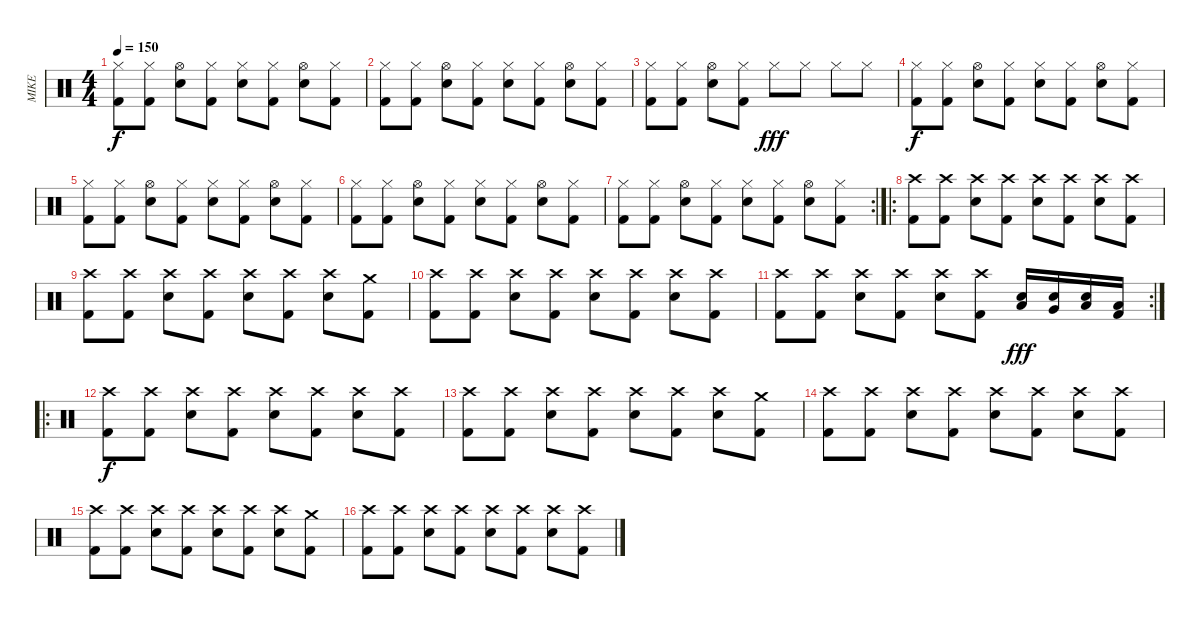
\track ("MIKE" "MIKE") {instrument percussion}
\staff {score}
\articulation defaults
\ts (4 4)
\tempo 150
\clef neutral
\ks c
("Hi-Hat (closed)" "Kick (hit) 2").8{dy f} ("Hi-Hat (closed)" "Kick (hit) 2").8 ("Hi-Hat (open)" "Snare (hit) 2").8 ("Hi-Hat (closed)" "Kick (hit) 2").8 ("Hi-Hat (closed)" "Snare (hit) 2").8 ("Hi-Hat (closed)" "Kick (hit) 2").8 ("Hi-Hat (open)" "Snare (hit) 2").8 ("Hi-Hat (closed)" "Kick (hit) 2").8 |
("Hi-Hat (closed)" "Kick (hit) 2").8 ("Hi-Hat (closed)" "Kick (hit) 2").8 ("Hi-Hat (open)" "Snare (hit) 2").8 ("Hi-Hat (closed)" "Kick (hit) 2").8 ("Hi-Hat (closed)" "Snare (hit) 2").8 ("Hi-Hat (closed)" "Kick (hit) 2").8 ("Hi-Hat (open)" "Snare (hit) 2").8 ("Hi-Hat (closed)" "Kick (hit) 2").8 |
("Hi-Hat (closed)" "Kick (hit) 2").8 ("Hi-Hat (closed)" "Kick (hit) 2").8 ("Hi-Hat (open)" "Snare (hit) 2").8 ("Hi-Hat (closed)" "Kick (hit) 2").8 "Hi-Hat (closed)".8{dy fff} "Hi-Hat (closed)".8 "Hi-Hat (closed)".8 "Hi-Hat (closed)".8 |
("Hi-Hat (closed)" "Kick (hit) 2").8{dy f} ("Hi-Hat (closed)" "Kick (hit) 2").8 ("Hi-Hat (open)" "Snare (hit) 2").8 ("Hi-Hat (closed)" "Kick (hit) 2").8 ("Hi-Hat (closed)" "Snare (hit) 2").8 ("Hi-Hat (closed)" "Kick (hit) 2").8 ("Hi-Hat (open)" "Snare (hit) 2").8 ("Hi-Hat (closed)" "Kick (hit) 2").8 |
("Hi-Hat (closed)" "Kick (hit) 2").8 ("Hi-Hat (closed)" "Kick (hit) 2").8 ("Hi-Hat (open)" "Snare (hit) 2").8 ("Hi-Hat (closed)" "Kick (hit) 2").8 ("Hi-Hat (closed)" "Snare (hit) 2").8 ("Hi-Hat (closed)" "Kick (hit) 2").8 ("Hi-Hat (open)" "Snare (hit) 2").8 ("Hi-Hat (closed)" "Kick (hit) 2").8 |
("Hi-Hat (closed)" "Kick (hit) 2").8 ("Hi-Hat (closed)" "Kick (hit) 2").8 ("Hi-Hat (open)" "Snare (hit) 2").8 ("Hi-Hat (closed)" "Kick (hit) 2").8 ("Hi-Hat (closed)" "Snare (hit) 2").8 ("Hi-Hat (closed)" "Kick (hit) 2").8 ("Hi-Hat (open)" "Snare (hit) 2").8 ("Hi-Hat (closed)" "Kick (hit) 2").8 |
\rc 2
("Hi-Hat (closed)" "Kick (hit) 2").8 ("Hi-Hat (closed)" "Kick (hit) 2").8 ("Hi-Hat (open)" "Snare (hit) 2").8 ("Hi-Hat (closed)" "Kick (hit) 2").8 ("Hi-Hat (closed)" "Snare (hit) 2").8 ("Hi-Hat (closed)" "Kick (hit) 2").8 ("Hi-Hat (open)" "Snare (hit) 2").8 ("Hi-Hat (closed)" "Kick (hit) 2").8 |
\ro
("Crash high (hit)" "Kick (hit) 2").8 ("Crash high (hit)" "Kick (hit) 2").8 ("Crash high (hit)" "Snare (hit) 2").8 ("Crash high (hit)" "Kick (hit) 2").8 ("Crash high (hit)" "Snare (hit) 2").8 ("Crash high (hit)" "Kick (hit) 2").8 ("Crash high (hit)" "Snare (hit) 2").8 ("Crash high (hit)" "Kick (hit) 2").8 |
("Crash high (hit)" "Kick (hit) 2").8 ("Crash high (hit)" "Kick (hit) 2").8 ("Crash high (hit)" "Snare (hit) 2").8 ("Crash high (hit)" "Kick (hit) 2").8 ("Crash high (hit)" "Snare (hit) 2").8 ("Crash high (hit)" "Kick (hit) 2").8 ("Crash high (hit)" "Snare (hit) 2").8 ("Crash medium (hit)" "Kick (hit) 2").8 |
("Crash high (hit)" "Kick (hit) 2").8 ("Crash high (hit)" "Kick (hit) 2").8 ("Crash high (hit)" "Snare (hit) 2").8 ("Crash high (hit)" "Kick (hit) 2").8 ("Crash high (hit)" "Snare (hit) 2").8 ("Crash high (hit)" "Kick (hit) 2").8 ("Crash high (hit)" "Snare (hit) 2").8 ("Crash high (hit)" "Kick (hit) 2").8 |
\rc 2
("Crash high (hit)" "Kick (hit) 2").8 ("Crash high (hit)" "Kick (hit) 2").8 ("Crash high (hit)" "Snare (hit) 2").8 ("Crash high (hit)" "Kick (hit) 2").8 ("Crash high (hit)" "Snare (hit) 2").8 ("Crash high (hit)" "Kick (hit) 2").8 ("Low Tom (hit)" "Snare (hit) 2").16{dy fff} ("Very Low Tom (hit)" "Snare (hit) 2").16 ("Low Floor Tom (hit)" "Snare (hit) 2").16 ("Low Floor Tom (hit)" "Kick (hit) 2").16 |
\ro
("Crash high (hit)" "Kick (hit) 2").8{dy f} ("Crash high (hit)" "Kick (hit) 2").8 ("Crash high (hit)" "Snare (hit) 2").8 ("Crash high (hit)" "Kick (hit) 2").8 ("Crash high (hit)" "Snare (hit) 2").8 ("Crash high (hit)" "Kick (hit) 2").8 ("Crash high (hit)" "Snare (hit) 2").8 ("Crash high (hit)" "Kick (hit) 2").8 |
("Crash high (hit)" "Kick (hit) 2").8 ("Crash high (hit)" "Kick (hit) 2").8 ("Crash high (hit)" "Snare (hit) 2").8 ("Crash high (hit)" "Kick (hit) 2").8 ("Crash high (hit)" "Snare (hit) 2").8 ("Crash high (hit)" "Kick (hit) 2").8 ("Crash high (hit)" "Snare (hit) 2").8 ("Crash medium (hit)" "Kick (hit) 2").8 |
("Crash high (hit)" "Kick (hit) 2").8 ("Crash high (hit)" "Kick (hit) 2").8 ("Crash high (hit)" "Snare (hit) 2").8 ("Crash high (hit)" "Kick (hit) 2").8 ("Crash high (hit)" "Snare (hit) 2").8 ("Crash high (hit)" "Kick (hit) 2").8 ("Crash high (hit)" "Snare (hit) 2").8 ("Crash high (hit)" "Kick (hit) 2").8 |
("Crash high (hit)" "Kick (hit) 2").8 ("Crash high (hit)" "Kick (hit) 2").8 ("Crash high (hit)" "Snare (hit) 2").8 ("Crash high (hit)" "Kick (hit) 2").8 ("Crash high (hit)" "Snare (hit) 2").8 ("Crash high (hit)" "Kick (hit) 2").8 ("Crash high (hit)" "Snare (hit) 2").8 ("Crash medium (hit)" "Kick (hit) 2").8 |
("Crash high (hit)" "Kick (hit) 2").8 ("Crash high (hit)" "Kick (hit) 2").8 ("Crash high (hit)" "Snare (hit) 2").8 ("Crash high (hit)" "Kick (hit) 2").8 ("Crash high (hit)" "Snare (hit) 2").8 ("Crash high (hit)" "Kick (hit) 2").8 ("Crash high (hit)" "Snare (hit) 2").8 ("Crash high (hit)" "Kick (hit) 2").8
